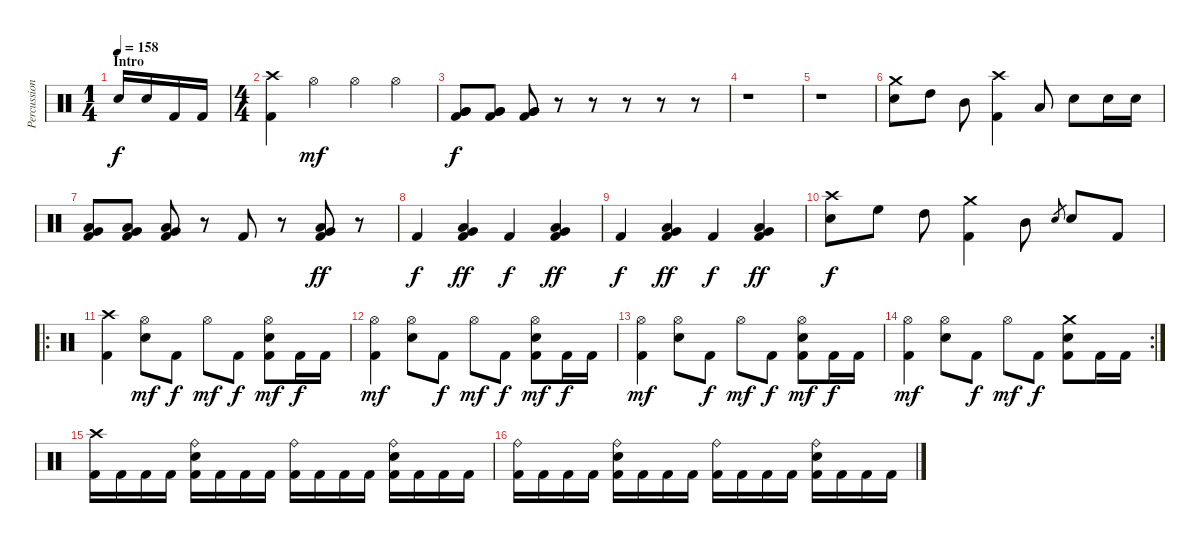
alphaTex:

\track ("Percussion" "Percussion") {instrument percussion}
\staff {score}
\articulation defaults
\ts (1 4)
\section ("" "Intro")
\tempo 158
\clef neutral
\ks c "Electric Snare (hit)".16{dy f} "Electric Snare (hit)".16 "Kick (hit) 2".16 "Kick (hit) 2".16
|
\ts (4 4)
("Crash high (hit)" "Kick (hit) 2").4 "Hi-Hat (open)".4{dy mf} "Hi-Hat (open)".4 "Hi-Hat (open)".4 |
("Very Low Tom (hit)" "Very Low Tom (hit)" "Kick (hit) 2").8{dy f} ("Very Low Tom (hit)" "Very Low Tom (hit)" "Kick (hit) 2").8 ("Very Low Tom (hit)" "Very Low Tom (hit)" "Kick (hit) 2").8 r.8 r.8 r.8 r.8 r.8 |
r.1 |
r.1 |
("Crash medium (hit)" "Electric Snare (hit)").8 "High Tom (hit)".8 "Mid Tom (hit)".8 ("Crash high (hit)" "Kick (hit) 2").4 "Low Tom (hit)".8 "Electric Snare (hit)".8 "Electric Snare (hit)".16 "Electric Snare (hit)".16 |
("Very Low Tom (hit)" "Low Tom (hit)" "Kick (hit) 2").8 ("Very Low Tom (hit)" "Low Tom (hit)" "Kick (hit) 2").8 ("Very Low Tom (hit)" "Low Tom (hit)" "Kick (hit) 2").8 r.8 "Kick (hit) 2".8 r.8 ("Very Low Tom (hit)" "Low Tom (hit)" "Kick (hit) 2").8{dy ff} r.8 |
"Kick (hit) 2".4{dy f} ("Very Low Tom (hit)" "Low Tom (hit)" "Kick (hit) 2").4{dy ff} "Kick (hit) 2".4{dy f} ("Very Low Tom (hit)" "Low Tom (hit)" "Kick (hit) 2").4{dy ff} |
"Kick (hit) 2".4{dy f} ("Very Low Tom (hit)" "Low Tom (hit)" "Kick (hit) 2").4{dy ff} "Kick (hit) 2".4{dy f} ("Very Low Tom (hit)" "Low Tom (hit)" "Kick (hit) 2").4{dy ff} |
("Crash high (hit)" "Electric Snare (hit)").8{dy f} "High Floor Tom (hit)".8 "High Tom (hit)".8 ("Crash medium (hit)" "Kick (hit) 2").4 "Mid Tom (hit)".8 "Electric Snare (hit)".8{gr} "Electric Snare (hit)".8 "Kick (hit) 2".8 |
\ro
("Crash high (hit)" "Kick (hit) 2").4 ("Hi-Hat (open)" "Electric Snare (hit)").8{dy mf} "Kick (hit) 2".8{dy f} "Hi-Hat (open)".8{dy mf} "Kick (hit) 2".8{dy f} ("Hi-Hat (open)" "Electric Snare (hit)" "Kick (hit) 2").8{dy mf} "Kick (hit) 2".16{dy f} "Kick (hit) 2".16 |
("Hi-Hat (open)" "Kick (hit) 2").4{dy mf} ("Hi-Hat (open)" "Electric Snare (hit)").8 "Kick (hit) 2".8{dy f} "Hi-Hat (open)".8{dy mf} "Kick (hit) 2".8{dy f} ("Hi-Hat (open)" "Electric Snare (hit)" "Kick (hit) 2").8{dy mf} "Kick (hit) 2".16{dy f} "Kick (hit) 2".16 |
("Hi-Hat (open)" "Kick (hit) 2").4{dy mf} ("Hi-Hat (open)" "Electric Snare (hit)").8 "Kick (hit) 2".8{dy f} "Hi-Hat (open)".8{dy mf} "Kick (hit) 2".8{dy f} ("Hi-Hat (open)" "Electric Snare (hit)" "Kick (hit) 2").8{dy mf} "Kick (hit) 2".16{dy f} "Kick (hit) 2".16 |
\rc 2
("Hi-Hat (open)" "Kick (hit) 2").4{dy mf} ("Hi-Hat (open)" "Electric Snare (hit)").8 "Kick (hit) 2".8{dy f} "Hi-Hat (open)".8{dy mf} "Kick (hit) 2".8{dy f} ("Crash medium (hit)" "Electric Snare (hit)" "Kick (hit) 2").8 "Kick (hit) 2".16 "Kick (hit) 2".16 |
("Crash high (hit)" "Kick (hit) 2").16 "Kick (hit) 2".16 "Kick (hit) 2".16 "Kick (hit) 2".16 ("Ride (bell)" "Electric Snare (hit)" "Kick (hit) 2").16 "Kick (hit) 2".16 "Kick (hit) 2".16 "Kick (hit) 2".16 ("Ride (bell)" "Kick (hit) 2").16 "Kick (hit) 2".16 "Kick (hit) 2".16 "Kick (hit) 2".16 ("Ride (bell)" "Electric Snare (hit)" "Kick (hit) 2").16 "Kick (hit) 2".16 "Kick (hit) 2".16 "Kick (hit) 2".16 |
("Ride (bell)" "Kick (hit) 2").16 "Kick (hit) 2".16 "Kick (hit) 2".16 "Kick (hit) 2".16 ("Ride (bell)" "Electric Snare (hit)" "Kick (hit) 2").16 "Kick (hit) 2".16 "Kick (hit) 2".16 "Kick (hit) 2".16 ("Ride (bell)" "Kick (hit) 2").16 "Kick (hit) 2".16 "Kick (hit) 2".16 "Kick (hit) 2".16 ("Ride (bell)" "Electric Snare (hit)" "Kick (hit) 2").16 "Kick (hit) 2".16 "Kick (hit) 2".16 "Kick (hit) 2".16
